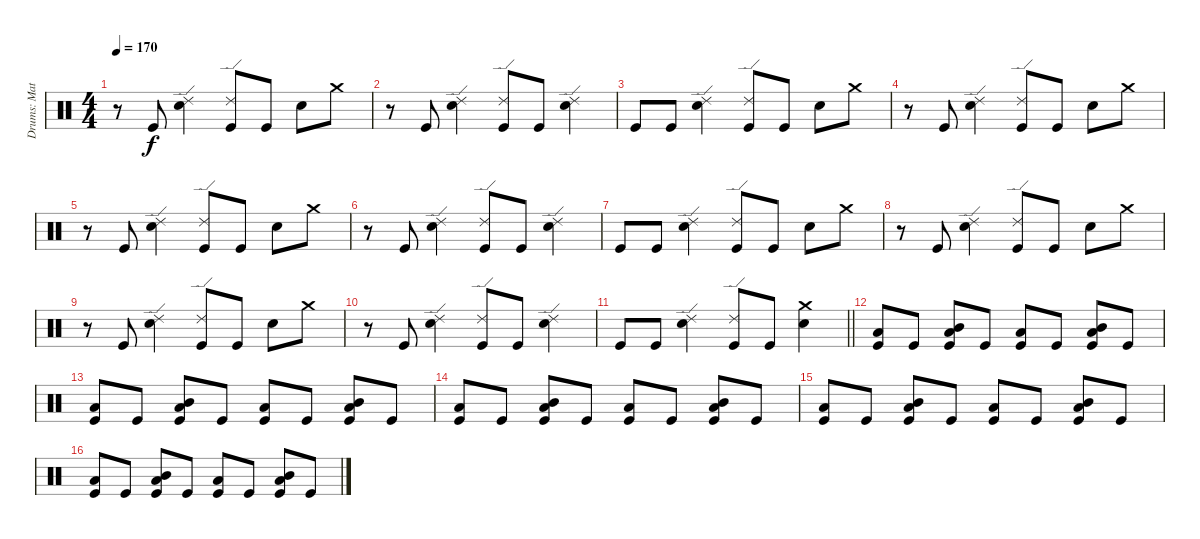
\track ("Drums: Matt" "Drums: Mat") {instrument percussion}
\staff {score}
\articulation defaults
\ts (4 4)
\tempo 170
\clef neutral
\ks c
r.8{dy f} "Kick (hit)".8 ("Ride (edge) 2" "Snare (hit) 2").4 ("Kick (hit)" "Ride (edge) 2").8 "Kick (hit)".8 "Snare (hit) 2".8 "Crash medium (hit)".8 |
r.8 "Kick (hit)".8 ("Ride (edge) 2" "Snare (hit) 2").4 ("Ride (edge) 2" "Kick (hit)").8 "Kick (hit)".8 ("Ride (edge) 2" "Snare (hit) 2").4 |
"Kick (hit)".8 "Kick (hit)".8 ("Ride (edge) 2" "Snare (hit) 2").4 ("Ride (edge) 2" "Kick (hit)").8 "Kick (hit)".8 "Snare (hit) 2".8 "Crash medium (hit)".8 |
r.8 "Kick (hit)".8 ("Snare (hit) 2" "Ride (edge) 2").4 ("Ride (edge) 2" "Kick (hit)").8 "Kick (hit)".8 "Snare (hit) 2".8 "Crash medium (hit)".8 |
r.8 "Kick (hit)".8 ("Snare (hit) 2" "Ride (edge) 2").4 ("Kick (hit)" "Ride (edge) 2").8 "Kick (hit)".8 "Snare (hit) 2".8 "Crash medium (hit)".8 |
r.8 "Kick (hit)".8 ("Snare (hit) 2" "Ride (edge) 2").4 ("Kick (hit)" "Ride (edge) 2").8 "Kick (hit)".8 ("Snare (hit) 2" "Ride (edge) 2").4 |
"Kick (hit)".8 "Kick (hit)".8 ("Ride (edge) 2" "Snare (hit) 2").4 ("Ride (edge) 2" "Kick (hit)").8 "Kick (hit)".8 "Snare (hit) 2".8 "Crash medium (hit)".8 |
r.8 "Kick (hit)".8 ("Snare (hit) 2" "Ride (edge) 2").4 ("Ride (edge) 2" "Kick (hit)").8 "Kick (hit)".8 "Snare (hit) 2".8 "Crash medium (hit)".8 |
r.8 "Kick (hit)".8 ("Ride (edge) 2" "Snare (hit) 2").4 ("Kick (hit)" "Ride (edge) 2").8 "Kick (hit)".8 "Snare (hit) 2".8 "Crash medium (hit)".8 |
r.8 "Kick (hit)".8 ("Snare (hit) 2" "Ride (edge) 2").4 ("Kick (hit)" "Ride (edge) 2").8 "Kick (hit)".8 ("Snare (hit) 2" "Ride (edge) 2").4 |
\barLineRight lightlight "Kick (hit)".8 "Kick (hit)".8
("Snare (hit) 2" "Ride (edge) 2").4 ("Kick (hit)" "Ride (edge) 2").8 "Kick (hit)".8 ("Snare (hit) 2" "Crash medium (hit)").4 |
("Kick (hit)" "Low Floor Tom (hit)").8 "Kick (hit)".8 ("Low Floor Tom (hit)" "Mid Tom (hit)" "Kick (hit)").8 "Kick (hit)".8 ("Low Floor Tom (hit)" "Kick (hit)").8 "Kick (hit)".8 ("Kick (hit)" "Mid Tom (hit)" "Low Floor Tom (hit)").8 "Kick (hit)".8 |
("Low Floor Tom (hit)" "Kick (hit)").8 "Kick (hit)".8 ("Kick (hit)" "Mid Tom (hit)" "Low Floor Tom (hit)").8 "Kick (hit)".8 ("Low Floor Tom (hit)" "Kick (hit)").8 "Kick (hit)".8 ("Kick (hit)" "Low Floor Tom (hit)" "Mid Tom (hit)").8 "Kick (hit)".8 |
("Kick (hit)" "Low Floor Tom (hit)").8 "Kick (hit)".8 ("Low Floor Tom (hit)" "Mid Tom (hit)" "Kick (hit)").8 "Kick (hit)".8 ("Kick (hit)" "Low Floor Tom (hit)").8 "Kick (hit)".8 ("Low Floor Tom (hit)" "Kick (hit)" "Mid Tom (hit)").8 "Kick (hit)".8 |
("Low Floor Tom (hit)" "Kick (hit)").8 "Kick (hit)".8 ("Kick (hit)" "Mid Tom (hit)" "Low Floor Tom (hit)").8 "Kick (hit)".8 ("Low Floor Tom (hit)" "Kick (hit)").8 "Kick (hit)".8 ("Mid Tom (hit)" "Kick (hit)" "Low Floor Tom (hit)").8 "Kick (hit)".8 |
("Kick (hit)" "Low Floor Tom (hit)").8 "Kick (hit)".8 ("Low Floor Tom (hit)" "Mid Tom (hit)" "Kick (hit)").8 "Kick (hit)".8 ("Kick (hit)" "Low Floor Tom (hit)").8 "Kick (hit)".8 ("Low Floor Tom (hit)" "Kick (hit)" "Mid Tom (hit)").8 "Kick (hit)".8
